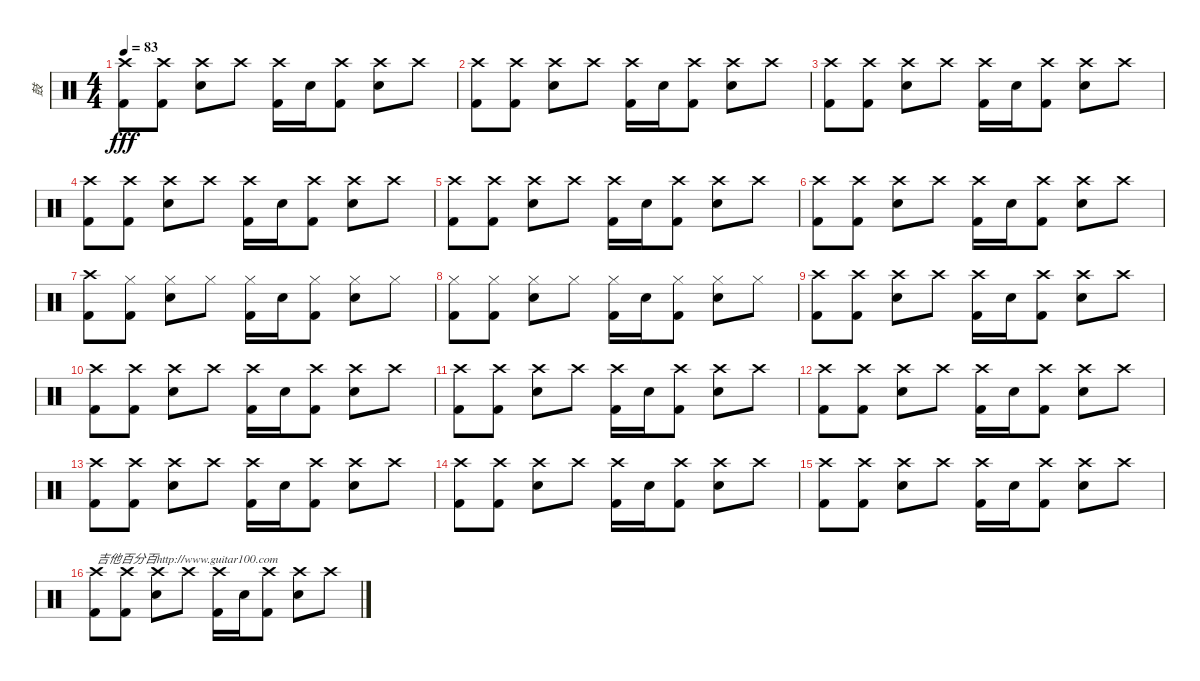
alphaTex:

\track ("鼓" "鼓") {instrument percussion}
\staff {score}
\articulation defaults
\ts (4 4)
\tempo 83
\clef neutral
\ks c
("Crash high (hit)" "Kick (hit) 2").8{dy fff} ("Crash high (hit)" "Kick (hit) 2").8 ("Crash high (hit)" "Electric Snare (hit)").8 "Crash high (hit)".8 ("Crash high (hit)" "Kick (hit) 2").16 "Electric Snare (hit)".16 ("Crash high (hit)" "Kick (hit) 2").8 ("Crash high (hit)" "Electric Snare (hit)").8 "Crash high (hit)".8 |
("Crash high (hit)" "Kick (hit) 2").8 ("Crash high (hit)" "Kick (hit) 2").8 ("Crash high (hit)" "Electric Snare (hit)").8 "Crash high (hit)".8 ("Crash high (hit)" "Kick (hit) 2").16 "Electric Snare (hit)".16 ("Crash high (hit)" "Kick (hit) 2").8 ("Crash high (hit)" "Electric Snare (hit)").8 "Crash high (hit)".8 |
("Crash high (hit)" "Kick (hit) 2").8 ("Crash high (hit)" "Kick (hit) 2").8 ("Crash high (hit)" "Electric Snare (hit)").8 "Crash high (hit)".8 ("Crash high (hit)" "Kick (hit) 2").16 "Electric Snare (hit)".16 ("Crash high (hit)" "Kick (hit) 2").8 ("Crash high (hit)" "Electric Snare (hit)").8 "Crash high (hit)".8 |
("Crash high (hit)" "Kick (hit) 2").8 ("Crash high (hit)" "Kick (hit) 2").8 ("Crash high (hit)" "Electric Snare (hit)").8 "Crash high (hit)".8 ("Crash high (hit)" "Kick (hit) 2").16 "Electric Snare (hit)".16 ("Crash high (hit)" "Kick (hit) 2").8 ("Crash high (hit)" "Electric Snare (hit)").8 "Crash high (hit)".8 |
("Crash high (hit)" "Kick (hit) 2").8 ("Crash high (hit)" "Kick (hit) 2").8 ("Crash high (hit)" "Electric Snare (hit)").8 "Crash high (hit)".8 ("Crash high (hit)" "Kick (hit) 2").16 "Electric Snare (hit)".16 ("Crash high (hit)" "Kick (hit) 2").8 ("Crash high (hit)" "Electric Snare (hit)").8 "Crash high (hit)".8 |
("Crash high (hit)" "Kick (hit) 2").8 ("Crash high (hit)" "Kick (hit) 2").8 ("Crash high (hit)" "Electric Snare (hit)").8 "Crash high (hit)".8 ("Crash high (hit)" "Kick (hit) 2").16 "Electric Snare (hit)".16 ("Crash high (hit)" "Kick (hit) 2").8 ("Crash high (hit)" "Electric Snare (hit)").8 "Crash high (hit)".8 |
("Crash high (hit)" "Kick (hit) 2").8 ("Hi-Hat (closed)" "Kick (hit) 2").8 ("Hi-Hat (closed)" "Electric Snare (hit)").8 "Hi-Hat (closed)".8 ("Hi-Hat (closed)" "Kick (hit) 2").16 "Electric Snare (hit)".16 ("Hi-Hat (closed)" "Kick (hit) 2").8 ("Hi-Hat (closed)" "Electric Snare (hit)").8 "Hi-Hat (closed)".8 |
("Hi-Hat (closed)" "Kick (hit) 2").8 ("Hi-Hat (closed)" "Kick (hit) 2").8 ("Hi-Hat (closed)" "Electric Snare (hit)").8 "Hi-Hat (closed)".8 ("Hi-Hat (closed)" "Kick (hit) 2").16 "Electric Snare (hit)".16 ("Hi-Hat (closed)" "Kick (hit) 2").8 ("Hi-Hat (closed)" "Electric Snare (hit)").8 "Hi-Hat (closed)".8 |
("Crash high (hit)" "Kick (hit) 2").8 ("Crash high (hit)" "Kick (hit) 2").8 ("Crash high (hit)" "Electric Snare (hit)").8 "Crash high (hit)".8 ("Crash high (hit)" "Kick (hit) 2").16 "Electric Snare (hit)".16 ("Crash high (hit)" "Kick (hit) 2").8 ("Crash high (hit)" "Electric Snare (hit)").8 "Crash high (hit)".8 |
("Crash high (hit)" "Kick (hit) 2").8 ("Crash high (hit)" "Kick (hit) 2").8 ("Crash high (hit)" "Electric Snare (hit)").8 "Crash high (hit)".8 ("Crash high (hit)" "Kick (hit) 2").16 "Electric Snare (hit)".16 ("Crash high (hit)" "Kick (hit) 2").8 ("Crash high (hit)" "Electric Snare (hit)").8 "Crash high (hit)".8 |
("Crash high (hit)" "Kick (hit) 2").8 ("Crash high (hit)" "Kick (hit) 2").8 ("Crash high (hit)" "Electric Snare (hit)").8 "Crash high (hit)".8 ("Crash high (hit)" "Kick (hit) 2").16 "Electric Snare (hit)".16 ("Crash high (hit)" "Kick (hit) 2").8 ("Crash high (hit)" "Electric Snare (hit)").8 "Crash high (hit)".8 |
("Crash high (hit)" "Kick (hit) 2").8 ("Crash high (hit)" "Kick (hit) 2").8 ("Crash high (hit)" "Electric Snare (hit)").8 "Crash high (hit)".8 ("Crash high (hit)" "Kick (hit) 2").16 "Electric Snare (hit)".16 ("Crash high (hit)" "Kick (hit) 2").8 ("Crash high (hit)" "Electric Snare (hit)").8 "Crash high (hit)".8 |
("Crash high (hit)" "Kick (hit) 2").8 ("Crash high (hit)" "Kick (hit) 2").8 ("Crash high (hit)" "Electric Snare (hit)").8 "Crash high (hit)".8 ("Crash high (hit)" "Kick (hit) 2").16 "Electric Snare (hit)".16 ("Crash high (hit)" "Kick (hit) 2").8 ("Crash high (hit)" "Electric Snare (hit)").8 "Crash high (hit)".8 |
("Crash high (hit)" "Kick (hit) 2").8 ("Crash high (hit)" "Kick (hit) 2").8 ("Crash high (hit)" "Electric Snare (hit)").8 "Crash high (hit)".8 ("Crash high (hit)" "Kick (hit) 2").16 "Electric Snare (hit)".16 ("Crash high (hit)" "Kick (hit) 2").8 ("Crash high (hit)" "Electric Snare (hit)").8 "Crash high (hit)".8 |
("Crash high (hit)" "Kick (hit) 2").8 ("Crash high (hit)" "Kick (hit) 2").8 ("Crash high (hit)" "Electric Snare (hit)").8 "Crash high (hit)".8 ("Crash high (hit)" "Kick (hit) 2").16 "Electric Snare (hit)".16 ("Crash high (hit)" "Kick (hit) 2").8 ("Crash high (hit)" "Electric Snare (hit)").8 "Crash high (hit)".8 |
("Crash high (hit)" "Kick (hit) 2").8{txt "吉他百分百http://www.guitar100.com"} ("Crash high (hit)" "Kick (hit) 2").8 ("Crash high (hit)" "Electric Snare (hit)").8 "Crash high (hit)".8 ("Crash high (hit)" "Kick (hit) 2").16 "Electric Snare (hit)".16 ("Crash high (hit)" "Kick (hit) 2").8 ("Crash high (hit)" "Electric Snare (hit)").8 "Crash high (hit)".8
